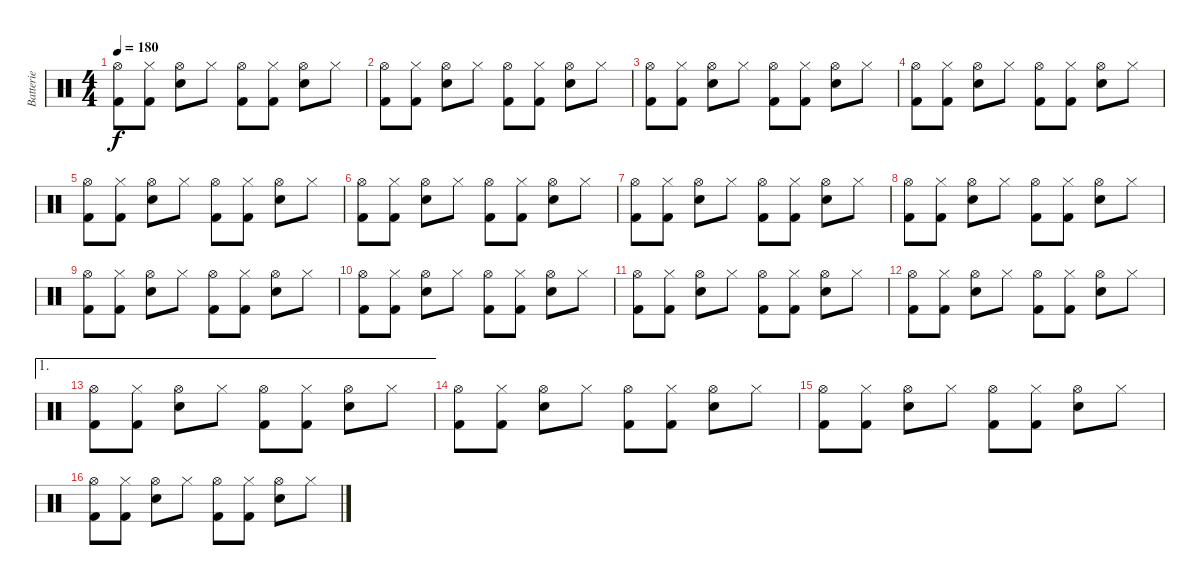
\track ("Batterie" "Batterie") {instrument percussion}
\staff {score}
\articulation defaults
\ts (4 4)
\tempo 180
\clef neutral
\ks c
("Hi-Hat (open)" "Kick (hit) 2").8{dy f} ("Hi-Hat (closed)" "Kick (hit) 2").8 ("Hi-Hat (open)" "Electric Snare (hit)").8 "Hi-Hat (closed)".8 ("Hi-Hat (open)" "Kick (hit) 2").8 ("Hi-Hat (closed)" "Kick (hit) 2").8 ("Hi-Hat (open)" "Electric Snare (hit)").8 "Hi-Hat (closed)".8 |
("Hi-Hat (open)" "Kick (hit) 2").8 ("Hi-Hat (closed)" "Kick (hit) 2").8 ("Hi-Hat (open)" "Electric Snare (hit)").8 "Hi-Hat (closed)".8 ("Hi-Hat (open)" "Kick (hit) 2").8 ("Hi-Hat (closed)" "Kick (hit) 2").8 ("Hi-Hat (open)" "Electric Snare (hit)").8 "Hi-Hat (closed)".8 |
("Hi-Hat (open)" "Kick (hit) 2").8 ("Hi-Hat (closed)" "Kick (hit) 2").8 ("Hi-Hat (open)" "Electric Snare (hit)").8 "Hi-Hat (closed)".8 ("Hi-Hat (open)" "Kick (hit) 2").8 ("Hi-Hat (closed)" "Kick (hit) 2").8 ("Hi-Hat (open)" "Electric Snare (hit)").8 "Hi-Hat (closed)".8 |
("Hi-Hat (open)" "Kick (hit) 2").8 ("Hi-Hat (closed)" "Kick (hit) 2").8 ("Hi-Hat (open)" "Electric Snare (hit)").8 "Hi-Hat (closed)".8 ("Hi-Hat (open)" "Kick (hit) 2").8 ("Hi-Hat (closed)" "Kick (hit) 2").8 ("Hi-Hat (open)" "Electric Snare (hit)").8 "Hi-Hat (closed)".8 |
("Hi-Hat (open)" "Kick (hit) 2").8 ("Hi-Hat (closed)" "Kick (hit) 2").8 ("Hi-Hat (open)" "Electric Snare (hit)").8 "Hi-Hat (closed)".8 ("Hi-Hat (open)" "Kick (hit) 2").8 ("Hi-Hat (closed)" "Kick (hit) 2").8 ("Hi-Hat (open)" "Electric Snare (hit)").8 "Hi-Hat (closed)".8 |
("Hi-Hat (open)" "Kick (hit) 2").8 ("Hi-Hat (closed)" "Kick (hit) 2").8 ("Hi-Hat (open)" "Electric Snare (hit)").8 "Hi-Hat (closed)".8 ("Hi-Hat (open)" "Kick (hit) 2").8 ("Hi-Hat (closed)" "Kick (hit) 2").8 ("Hi-Hat (open)" "Electric Snare (hit)").8 "Hi-Hat (closed)".8 |
("Hi-Hat (open)" "Kick (hit) 2").8 ("Hi-Hat (closed)" "Kick (hit) 2").8 ("Hi-Hat (open)" "Electric Snare (hit)").8 "Hi-Hat (closed)".8 ("Hi-Hat (open)" "Kick (hit) 2").8 ("Hi-Hat (closed)" "Kick (hit) 2").8 ("Hi-Hat (open)" "Electric Snare (hit)").8 "Hi-Hat (closed)".8 |
("Hi-Hat (open)" "Kick (hit) 2").8 ("Hi-Hat (closed)" "Kick (hit) 2").8 ("Hi-Hat (open)" "Electric Snare (hit)").8 "Hi-Hat (closed)".8 ("Hi-Hat (open)" "Kick (hit) 2").8 ("Hi-Hat (closed)" "Kick (hit) 2").8 ("Hi-Hat (open)" "Electric Snare (hit)").8 "Hi-Hat (closed)".8 |
("Hi-Hat (open)" "Kick (hit) 2").8 ("Hi-Hat (closed)" "Kick (hit) 2").8 ("Hi-Hat (open)" "Electric Snare (hit)").8 "Hi-Hat (closed)".8 ("Hi-Hat (open)" "Kick (hit) 2").8 ("Hi-Hat (closed)" "Kick (hit) 2").8 ("Hi-Hat (open)" "Electric Snare (hit)").8 "Hi-Hat (closed)".8 |
("Hi-Hat (open)" "Kick (hit) 2").8 ("Hi-Hat (closed)" "Kick (hit) 2").8 ("Hi-Hat (open)" "Electric Snare (hit)").8 "Hi-Hat (closed)".8 ("Hi-Hat (open)" "Kick (hit) 2").8 ("Hi-Hat (closed)" "Kick (hit) 2").8 ("Hi-Hat (open)" "Electric Snare (hit)").8 "Hi-Hat (closed)".8 |
("Hi-Hat (open)" "Kick (hit) 2").8 ("Hi-Hat (closed)" "Kick (hit) 2").8 ("Hi-Hat (open)" "Electric Snare (hit)").8 "Hi-Hat (closed)".8 ("Hi-Hat (open)" "Kick (hit) 2").8 ("Hi-Hat (closed)" "Kick (hit) 2").8 ("Hi-Hat (open)" "Electric Snare (hit)").8 "Hi-Hat (closed)".8 |
("Hi-Hat (open)" "Kick (hit) 2").8 ("Hi-Hat (closed)" "Kick (hit) 2").8 ("Hi-Hat (open)" "Electric Snare (hit)").8 "Hi-Hat (closed)".8 ("Hi-Hat (open)" "Kick (hit) 2").8 ("Hi-Hat (closed)" "Kick (hit) 2").8 ("Hi-Hat (open)" "Electric Snare (hit)").8 "Hi-Hat (closed)".8 |
\ae 1
("Hi-Hat (open)" "Kick (hit) 2").8 ("Hi-Hat (closed)" "Kick (hit) 2").8 ("Hi-Hat (open)" "Electric Snare (hit)").8 "Hi-Hat (closed)".8 ("Hi-Hat (open)" "Kick (hit) 2").8 ("Hi-Hat (closed)" "Kick (hit) 2").8 ("Hi-Hat (open)" "Electric Snare (hit)").8 "Hi-Hat (closed)".8 |
("Hi-Hat (open)" "Kick (hit) 2").8 ("Hi-Hat (closed)" "Kick (hit) 2").8 ("Hi-Hat (open)" "Electric Snare (hit)").8 "Hi-Hat (closed)".8 ("Hi-Hat (open)" "Kick (hit) 2").8 ("Hi-Hat (closed)" "Kick (hit) 2").8 ("Hi-Hat (open)" "Electric Snare (hit)").8 "Hi-Hat (closed)".8 |
("Hi-Hat (open)" "Kick (hit) 2").8 ("Hi-Hat (closed)" "Kick (hit) 2").8 ("Hi-Hat (open)" "Electric Snare (hit)").8 "Hi-Hat (closed)".8 ("Hi-Hat (open)" "Kick (hit) 2").8 ("Hi-Hat (closed)" "Kick (hit) 2").8 ("Hi-Hat (open)" "Electric Snare (hit)").8 "Hi-Hat (closed)".8 |
("Hi-Hat (open)" "Kick (hit) 2").8 ("Hi-Hat (closed)" "Kick (hit) 2").8 ("Hi-Hat (open)" "Electric Snare (hit)").8 "Hi-Hat (closed)".8 ("Hi-Hat (open)" "Kick (hit) 2").8 ("Hi-Hat (closed)" "Kick (hit) 2").8 ("Hi-Hat (open)" "Electric Snare (hit)").8 "Hi-Hat (closed)".8
